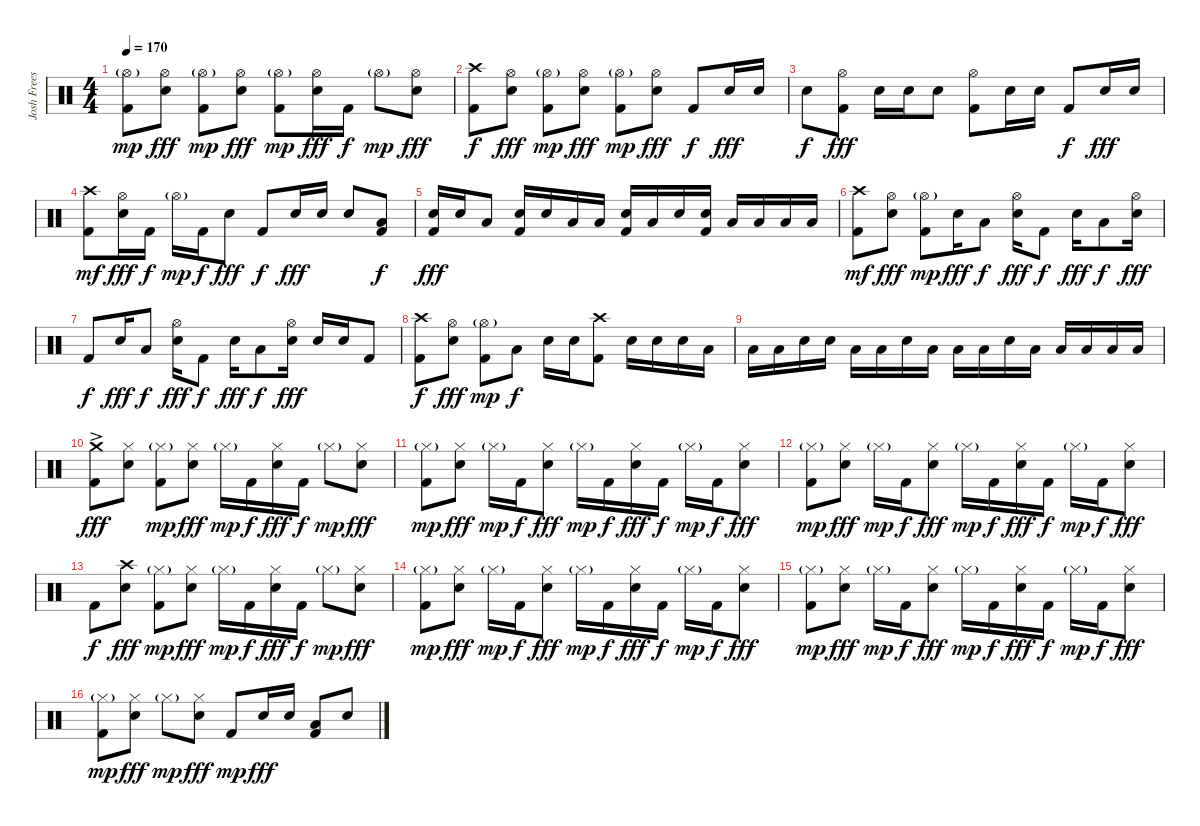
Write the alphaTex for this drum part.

\track ("Josh Freese" "Josh Frees") {solo instrument percussion}
\staff
\articulation defaults
\ts (4 4)
\tempo 170
\clef neutral
\ks c
("Hi-Hat (open)"{g} "Kick (hit) 2").8{dy mp} ("Hi-Hat (open)" "Electric Snare (hit)").8{dy fff} ("Hi-Hat (open)"{g} "Kick (hit) 2").8{dy mp} ("Hi-Hat (open)" "Electric Snare (hit)").8{dy fff} ("Hi-Hat (open)"{g} "Kick (hit) 2").8{dy mp} ("Hi-Hat (open)" "Electric Snare (hit)").16{dy fff} "Kick (hit) 2".16{dy f} "Hi-Hat (open)"{g}.8{dy mp} ("Hi-Hat (open)" "Electric Snare (hit)").8{dy fff} |
("Crash high (hit)" "Kick (hit) 2").8{dy f} ("Hi-Hat (open)" "Electric Snare (hit)").8{dy fff} ("Hi-Hat (open)"{g} "Kick (hit) 2").8{dy mp} ("Hi-Hat (open)" "Electric Snare (hit)").8{dy fff} ("Hi-Hat (open)"{g} "Kick (hit) 2").8{dy mp} ("Hi-Hat (open)" "Electric Snare (hit)").8{dy fff} "Kick (hit) 2".8{dy f} "Electric Snare (hit)".16{dy fff} "Electric Snare (hit)".16 |
"Electric Snare (hit)".8{dy f} ("Hi-Hat (open)" "Kick (hit) 2").8{dy fff} "Electric Snare (hit)".16 "Electric Snare (hit)".16 "Electric Snare (hit)".8 ("Hi-Hat (open)" "Kick (hit) 2").8 "Electric Snare (hit)".16 "Electric Snare (hit)".16 "Kick (hit) 2".8{dy f} "Electric Snare (hit)".16{dy fff} "Electric Snare (hit)".16 |
("Crash high (hit)" "Kick (hit) 2").8{dy mf} ("Hi-Hat (open)" "Electric Snare (hit)").16{dy fff} "Kick (hit) 2".16{dy f} "Hi-Hat (open)"{g}.16{dy mp} "Kick (hit) 2".16{dy f} "Electric Snare (hit)".8{dy fff} "Kick (hit) 2".8{dy f} "Electric Snare (hit)".16{dy fff} "Electric Snare (hit)".16 "Electric Snare (hit)".8 ("Low Tom (hit)" "Kick (hit) 2").8{dy f} |
("Electric Snare (hit)" "Kick (hit) 2").16{dy fff} "Electric Snare (hit)".16 "Low Tom (hit)".8 ("Electric Snare (hit)" "Kick (hit) 2").16 "Electric Snare (hit)".16 "Low Tom (hit)".16 "Low Tom (hit)".16 ("Electric Snare (hit)" "Kick (hit) 2").16 "Low Tom (hit)".16 "Electric Snare (hit)".16 ("Electric Snare (hit)" "Kick (hit) 2").16 "Low Tom (hit)".16 "Low Tom (hit)".16 "Low Floor Tom (hit)".16 "Low Floor Tom (hit)".16 |
("Crash high (hit)" "Kick (hit) 2").8{dy mf} ("Hi-Hat (open)" "Electric Snare (hit)").8{dy fff} ("Hi-Hat (open)"{g} "Kick (hit) 2").8{dy mp} "Electric Snare (hit)".16{dy fff} "Low Tom (hit)".8{dy f} ("Hi-Hat (open)" "Electric Snare (hit)").16{dy fff} "Kick (hit) 2".8{dy f} "Electric Snare (hit)".16{dy fff} "Low Tom (hit)".8{dy f} ("Hi-Hat (open)" "Electric Snare (hit)").16{dy fff} |
"Kick (hit) 2".8{dy f} "Electric Snare (hit)".16{dy fff} "Low Tom (hit)".8{dy f} ("Hi-Hat (open)" "Electric Snare (hit)").16{dy fff} "Kick (hit) 2".8{dy f} "Electric Snare (hit)".16{dy fff} "Low Tom (hit)".8{dy f} ("Hi-Hat (open)" "Electric Snare (hit)").16{dy fff} "Electric Snare (hit)".16 "Electric Snare (hit)".16 "Kick (hit) 2".8 |
("Crash high (hit)" "Kick (hit) 2").8{dy f} ("Hi-Hat (open)" "Electric Snare (hit)").8{dy fff} ("Hi-Hat (open)"{g} "Kick (hit) 2").8{dy mp} "Low Tom (hit)".8{dy f} "Electric Snare (hit)".16 "Electric Snare (hit)".16 ("Crash high (hit)" "Kick (hit) 2").8 "Electric Snare (hit)".16 "Electric Snare (hit)".16 "Electric Snare (hit)".16 "Low Tom (hit)".16 |
"Low Tom (hit)".16 "Low Tom (hit)".16 "Electric Snare (hit)".16 "Electric Snare (hit)".16 "Low Tom (hit)".16 "Low Tom (hit)".16 "Electric Snare (hit)".16 "Low Tom (hit)".16 "Low Tom (hit)".16 "Low Tom (hit)".16 "Electric Snare (hit)".16 "Low Tom (hit)".16 "Low Floor Tom (hit)".16 "Low Tom (hit)".16 "Low Floor Tom (hit)".16 "Low Floor Tom (hit)".16 |
("Crash medium (hit)"{ac} "Kick (hit) 2").8{dy fff} ("Hi-Hat (closed)" "Electric Snare (hit)").8 ("Hi-Hat (closed)"{g} "Kick (hit) 2").8{dy mp} ("Hi-Hat (closed)" "Electric Snare (hit)").8{dy fff} "Hi-Hat (closed)"{g}.16{dy mp} "Kick (hit) 2".16{dy f} ("Hi-Hat (closed)" "Electric Snare (hit)").16{dy fff} "Kick (hit) 2".16{dy f} "Hi-Hat (closed)"{g}.8{dy mp} ("Hi-Hat (closed)" "Electric Snare (hit)").8{dy fff} |
("Hi-Hat (closed)"{g} "Kick (hit) 2").8{dy mp} ("Hi-Hat (closed)" "Electric Snare (hit)").8{dy fff} "Hi-Hat (closed)"{g}.16{dy mp} "Kick (hit) 2".16{dy f} ("Hi-Hat (closed)" "Electric Snare (hit)").8{dy fff} "Hi-Hat (closed)"{g}.16{dy mp} "Kick (hit) 2".16{dy f} ("Hi-Hat (closed)" "Electric Snare (hit)").16{dy fff} "Kick (hit) 2".16{dy f} "Hi-Hat (closed)"{g}.16{dy mp} "Kick (hit) 2".16{dy f} ("Hi-Hat (closed)" "Electric Snare (hit)").8{dy fff} |
("Hi-Hat (closed)"{g} "Kick (hit) 2").8{dy mp} ("Hi-Hat (closed)" "Electric Snare (hit)").8{dy fff} "Hi-Hat (closed)"{g}.16{dy mp} "Kick (hit) 2".16{dy f} ("Hi-Hat (closed)" "Electric Snare (hit)").8{dy fff} "Hi-Hat (closed)"{g}.16{dy mp} "Kick (hit) 2".16{dy f} ("Hi-Hat (closed)" "Electric Snare (hit)").16{dy fff} "Kick (hit) 2".16{dy f} "Hi-Hat (closed)"{g}.16{dy mp} "Kick (hit) 2".16{dy f} ("Hi-Hat (closed)" "Electric Snare (hit)").8{dy fff} |
"Kick (hit) 2".8{dy f} ("Crash high (hit)" "Electric Snare (hit)").8{dy fff} ("Hi-Hat (closed)"{g} "Kick (hit) 2").8{dy mp} ("Hi-Hat (closed)" "Electric Snare (hit)").8{dy fff} "Hi-Hat (closed)"{g}.16{dy mp} "Kick (hit) 2".16{dy f} ("Hi-Hat (closed)" "Electric Snare (hit)").16{dy fff} "Kick (hit) 2".16{dy f} "Hi-Hat (closed)"{g}.8{dy mp} ("Hi-Hat (closed)" "Electric Snare (hit)").8{dy fff} |
("Hi-Hat (closed)"{g} "Kick (hit) 2").8{dy mp} ("Hi-Hat (closed)" "Electric Snare (hit)").8{dy fff} "Hi-Hat (closed)"{g}.16{dy mp} "Kick (hit) 2".16{dy f} ("Hi-Hat (closed)" "Electric Snare (hit)").8{dy fff} "Hi-Hat (closed)"{g}.16{dy mp} "Kick (hit) 2".16{dy f} ("Hi-Hat (closed)" "Electric Snare (hit)").16{dy fff} "Kick (hit) 2".16{dy f} "Hi-Hat (closed)"{g}.16{dy mp} "Kick (hit) 2".16{dy f} ("Hi-Hat (closed)" "Electric Snare (hit)").8{dy fff} |
("Hi-Hat (closed)"{g} "Kick (hit) 2").8{dy mp} ("Hi-Hat (closed)" "Electric Snare (hit)").8{dy fff} "Hi-Hat (closed)"{g}.16{dy mp} "Kick (hit) 2".16{dy f} ("Hi-Hat (closed)" "Electric Snare (hit)").8{dy fff} "Hi-Hat (closed)"{g}.16{dy mp} "Kick (hit) 2".16{dy f} ("Hi-Hat (closed)" "Electric Snare (hit)").16{dy fff} "Kick (hit) 2".16{dy f} "Hi-Hat (closed)"{g}.16{dy mp} "Kick (hit) 2".16{dy f} ("Hi-Hat (closed)" "Electric Snare (hit)").8{dy fff} |
("Hi-Hat (closed)"{g} "Kick (hit) 2").8{dy mp} ("Hi-Hat (closed)" "Electric Snare (hit)").8{dy fff} "Hi-Hat (closed)"{g}.8{dy mp} ("Hi-Hat (closed)" "Electric Snare (hit)").8{dy fff} "Kick (hit) 2".8{dy mp} "Electric Snare (hit)".16{dy fff} "Electric Snare (hit)".16 ("Low Tom (hit)" "Kick (hit) 2").8 "Electric Snare (hit)".8
